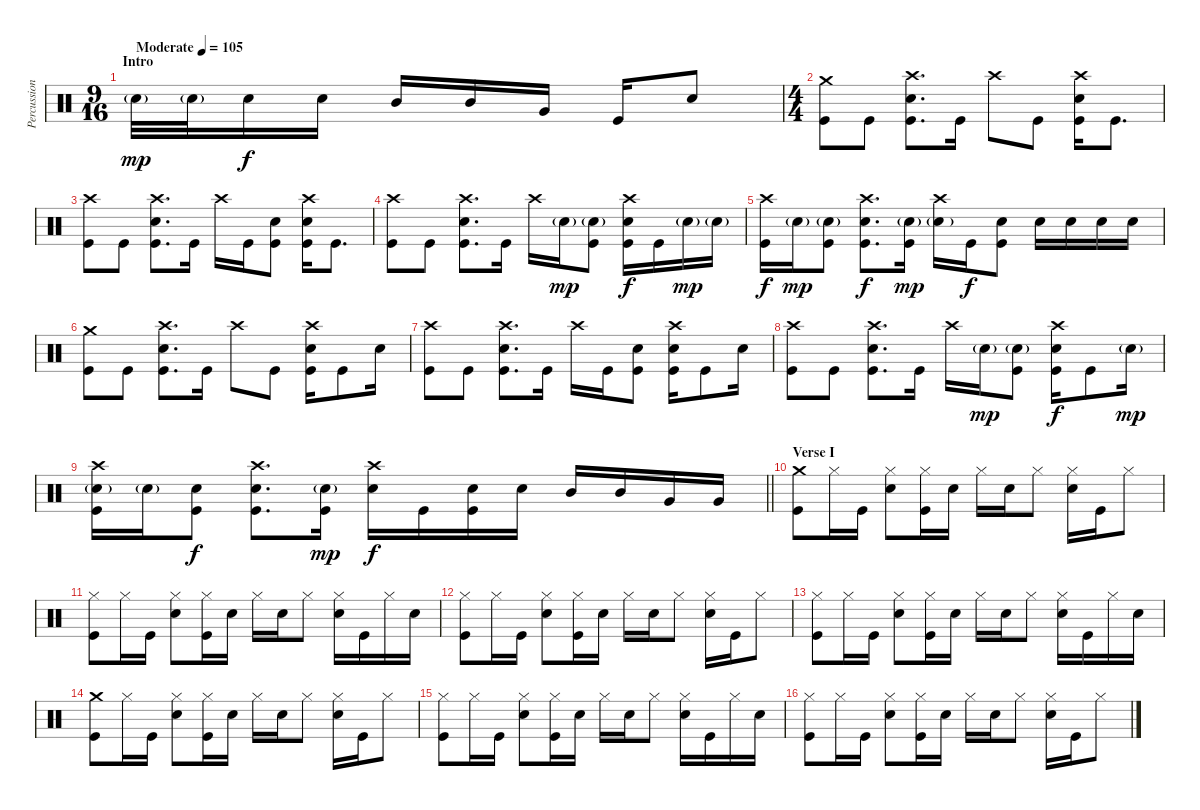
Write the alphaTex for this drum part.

\track ("Percussion" "Percussion") {instrument percussion}
\staff {score}
\articulation defaults
\ts (9 16)
\section ("" "Intro")
\tempo (105 "Moderate")
\clef neutral
\ks c "Electric Snare (hit)"{g}.32{dy mp} "Electric Snare (hit)"{g}.32 "Electric Snare (hit)".16{dy f} "Electric Snare (hit)".16 "Mid Tom (hit)".16 "Mid Tom (hit)".16 "Very Low Tom (hit)".16 "Kick (hit)".16 "Electric Snare (hit)".8
|
\ts (4 4)
("Crash medium (hit)" "Kick (hit)").8 "Kick (hit)".8 ("Crash high (hit)" "Electric Snare (hit)" "Kick (hit)").8{d} "Kick (hit)".16 "Crash high (hit)".8 "Kick (hit)".8 ("Crash high (hit)" "Electric Snare (hit)" "Kick (hit)").16 "Kick (hit)".8{d} |
("Crash high (hit)" "Kick (hit)").8 "Kick (hit)".8 ("Crash high (hit)" "Electric Snare (hit)" "Kick (hit)").8{d} "Kick (hit)".16 "Crash high (hit)".16 "Kick (hit)".16 ("Electric Snare (hit)" "Kick (hit)").8 ("Crash high (hit)" "Electric Snare (hit)" "Kick (hit)").16 "Kick (hit)".8{d} |
("Crash high (hit)" "Kick (hit)").8 "Kick (hit)".8 ("Crash high (hit)" "Electric Snare (hit)" "Kick (hit)").8{d} "Kick (hit)".16 "Crash high (hit)".16 "Electric Snare (hit)"{g}.16{dy mp} ("Electric Snare (hit)"{g} "Kick (hit)").8 ("Crash high (hit)" "Electric Snare (hit)" "Kick (hit)").16{dy f} "Kick (hit)".16 "Electric Snare (hit)"{g}.16{dy mp} "Electric Snare (hit)"{g}.16 |
("Crash high (hit)" "Kick (hit)").16{dy f} "Electric Snare (hit)"{g}.16{dy mp} ("Electric Snare (hit)"{g} "Kick (hit)").8 ("Crash high (hit)" "Electric Snare (hit)" "Kick (hit)").8{d dy f} ("Electric Snare (hit)"{g} "Kick (hit)").16{dy mp} ("Crash high (hit)" "Electric Snare (hit)"{g}).16 "Kick (hit)".16{dy f} ("Electric Snare (hit)" "Kick (hit)").8 "Electric Snare (hit)".16 "Electric Snare (hit)".16 "Electric Snare (hit)".16 "Electric Snare (hit)".16 |
("Crash medium (hit)" "Kick (hit)").8 "Kick (hit)".8 ("Crash high (hit)" "Electric Snare (hit)" "Kick (hit)").8{d} "Kick (hit)".16 "Crash high (hit)".8 "Kick (hit)".8 ("Crash high (hit)" "Electric Snare (hit)" "Kick (hit)").16 "Kick (hit)".8 "Electric Snare (hit)".16 |
("Crash high (hit)" "Kick (hit)").8 "Kick (hit)".8 ("Crash high (hit)" "Electric Snare (hit)" "Kick (hit)").8{d} "Kick (hit)".16 "Crash high (hit)".16 "Kick (hit)".16 ("Electric Snare (hit)" "Kick (hit)").8 ("Crash high (hit)" "Electric Snare (hit)" "Kick (hit)").16 "Kick (hit)".8 "Electric Snare (hit)".16 |
("Crash high (hit)" "Kick (hit)").8 "Kick (hit)".8 ("Crash high (hit)" "Electric Snare (hit)" "Kick (hit)").8{d} "Kick (hit)".16 "Crash high (hit)".16 "Electric Snare (hit)"{g}.16{dy mp} ("Electric Snare (hit)"{g} "Kick (hit)").8 ("Crash high (hit)" "Electric Snare (hit)" "Kick (hit)").16{dy f} "Kick (hit)".8 "Electric Snare (hit)"{g}.16{dy mp} |
\barLineRight lightlight
("Crash high (hit)" "Electric Snare (hit)"{g} "Kick (hit)").16 "Electric Snare (hit)"{g}.16 ("Electric Snare (hit)" "Kick (hit)").8{dy f} ("Crash high (hit)" "Electric Snare (hit)" "Kick (hit)").8{d} ("Electric Snare (hit)"{g} "Kick (hit)").16{dy mp} ("Crash high (hit)" "Electric Snare (hit)").16{dy f} "Kick (hit)".16 ("Electric Snare (hit)" "Kick (hit)").16 "Electric Snare (hit)".16 "Mid Tom (hit)".16 "Mid Tom (hit)".16 "Very Low Tom (hit)".16 "Very Low Tom (hit)".16 |
\section ("" "Verse I")
("Crash medium (hit)" "Kick (hit)").8 "Hi-Hat (closed)".16 "Kick (hit)".16 ("Hi-Hat (closed)" "Electric Snare (hit)").8 ("Hi-Hat (closed)" "Kick (hit)").16 "Electric Snare (hit)".16 "Hi-Hat (closed)".16 "Electric Snare (hit)".16 "Hi-Hat (closed)".8 ("Hi-Hat (closed)" "Electric Snare (hit)").16 "Kick (hit)".16 "Hi-Hat (closed)".8 |
("Hi-Hat (closed)" "Kick (hit)").8 "Hi-Hat (closed)".16 "Kick (hit)".16 ("Hi-Hat (closed)" "Electric Snare (hit)").8 ("Hi-Hat (closed)" "Kick (hit)").16 "Electric Snare (hit)".16 "Hi-Hat (closed)".16 "Electric Snare (hit)".16 "Hi-Hat (closed)".8 ("Hi-Hat (closed)" "Electric Snare (hit)").16 "Kick (hit)".16 "Hi-Hat (closed)".16 "Electric Snare (hit)".16 |
("Hi-Hat (closed)" "Kick (hit)").8 "Hi-Hat (closed)".16 "Kick (hit)".16 ("Hi-Hat (closed)" "Electric Snare (hit)").8 ("Hi-Hat (closed)" "Kick (hit)").16 "Electric Snare (hit)".16 "Hi-Hat (closed)".16 "Electric Snare (hit)".16 "Hi-Hat (closed)".8 ("Hi-Hat (closed)" "Electric Snare (hit)").16 "Kick (hit)".16 "Hi-Hat (closed)".8 |
("Hi-Hat (closed)" "Kick (hit)").8 "Hi-Hat (closed)".16 "Kick (hit)".16 ("Hi-Hat (closed)" "Electric Snare (hit)").8 ("Hi-Hat (closed)" "Kick (hit)").16 "Electric Snare (hit)".16 "Hi-Hat (closed)".16 "Electric Snare (hit)".16 "Hi-Hat (closed)".8 ("Hi-Hat (closed)" "Electric Snare (hit)").16 "Kick (hit)".16 "Hi-Hat (closed)".16 "Electric Snare (hit)".16 |
("Crash medium (hit)" "Kick (hit)").8 "Hi-Hat (closed)".16 "Kick (hit)".16 ("Hi-Hat (closed)" "Electric Snare (hit)").8 ("Hi-Hat (closed)" "Kick (hit)").16 "Electric Snare (hit)".16 "Hi-Hat (closed)".16 "Electric Snare (hit)".16 "Hi-Hat (closed)".8 ("Hi-Hat (closed)" "Electric Snare (hit)").16 "Kick (hit)".16 "Hi-Hat (closed)".8 |
("Hi-Hat (closed)" "Kick (hit)").8 "Hi-Hat (closed)".16 "Kick (hit)".16 ("Hi-Hat (closed)" "Electric Snare (hit)").8 ("Hi-Hat (closed)" "Kick (hit)").16 "Electric Snare (hit)".16 "Hi-Hat (closed)".16 "Electric Snare (hit)".16 "Hi-Hat (closed)".8 ("Hi-Hat (closed)" "Electric Snare (hit)").16 "Kick (hit)".16 "Hi-Hat (closed)".16 "Electric Snare (hit)".16 |
("Hi-Hat (closed)" "Kick (hit)").8 "Hi-Hat (closed)".16 "Kick (hit)".16 ("Hi-Hat (closed)" "Electric Snare (hit)").8 ("Hi-Hat (closed)" "Kick (hit)").16 "Electric Snare (hit)".16 "Hi-Hat (closed)".16 "Electric Snare (hit)".16 "Hi-Hat (closed)".8 ("Hi-Hat (closed)" "Electric Snare (hit)").16 "Kick (hit)".16 "Hi-Hat (closed)".8
